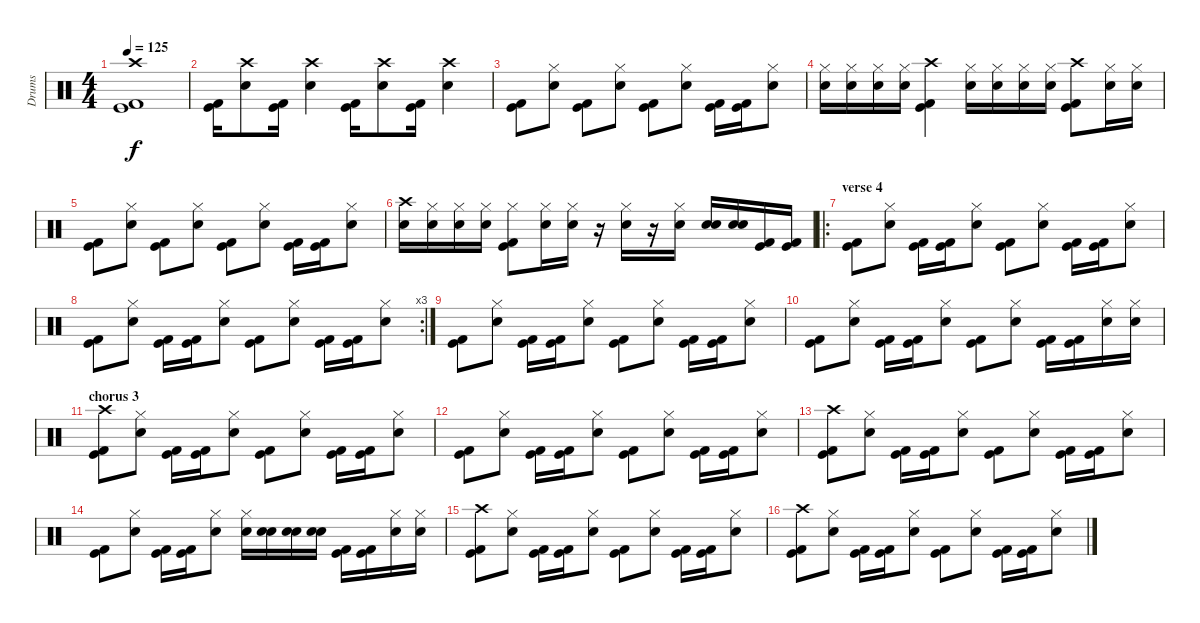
\track ("Drums" "Drums") {instrument percussion}
\staff {score}
\articulation defaults
\ts (4 4)
\tempo 125
\clef neutral
\ks c
("Crash high (hit)" "Kick (hit)" "Kick (hit) 2").1{dy f} |
("Kick (hit)" "Kick (hit) 2").16 ("Crash high (hit)" "Electric Snare (hit)").8 ("Kick (hit)" "Kick (hit) 2").16 ("Crash high (hit)" "Electric Snare (hit)").4 ("Kick (hit)" "Kick (hit) 2").16 ("Crash high (hit)" "Electric Snare (hit)").8 ("Kick (hit)" "Kick (hit) 2").16 ("Crash high (hit)" "Electric Snare (hit)").4 |
("Kick (hit)" "Kick (hit) 2").8 ("Hi-Hat (closed)" "Electric Snare (hit)").8 ("Kick (hit)" "Kick (hit) 2").8 ("Hi-Hat (closed)" "Electric Snare (hit)").8 ("Kick (hit)" "Kick (hit) 2").8 ("Hi-Hat (closed)" "Electric Snare (hit)").8 ("Kick (hit)" "Kick (hit) 2").16 ("Kick (hit)" "Kick (hit) 2").16 ("Hi-Hat (closed)" "Electric Snare (hit)").8 |
("Hi-Hat (closed)" "Electric Snare (hit)").16 ("Hi-Hat (closed)" "Electric Snare (hit)").16 ("Hi-Hat (closed)" "Electric Snare (hit)").16 ("Hi-Hat (closed)" "Electric Snare (hit)").16 ("Crash high (hit)" "Kick (hit)" "Kick (hit) 2").4 ("Hi-Hat (closed)" "Electric Snare (hit)").16 ("Hi-Hat (closed)" "Electric Snare (hit)").16 ("Hi-Hat (closed)" "Electric Snare (hit)").16 ("Hi-Hat (closed)" "Electric Snare (hit)").16 ("Crash high (hit)" "Kick (hit)" "Kick (hit) 2").8 ("Hi-Hat (closed)" "Electric Snare (hit)").16 ("Hi-Hat (closed)" "Electric Snare (hit)").16 |
("Kick (hit)" "Kick (hit) 2").8 ("Hi-Hat (closed)" "Electric Snare (hit)").8 ("Kick (hit)" "Kick (hit) 2").8 ("Hi-Hat (closed)" "Electric Snare (hit)").8 ("Kick (hit)" "Kick (hit) 2").8 ("Hi-Hat (closed)" "Electric Snare (hit)").8 ("Kick (hit)" "Kick (hit) 2").16 ("Kick (hit)" "Kick (hit) 2").16 ("Hi-Hat (closed)" "Electric Snare (hit)").8 |
("Crash high (hit)" "Electric Snare (hit)").16 ("Hi-Hat (closed)" "Electric Snare (hit)").16 ("Hi-Hat (closed)" "Electric Snare (hit)").16 ("Hi-Hat (closed)" "Electric Snare (hit)").16 ("Hi-Hat (closed)" "Kick (hit)" "Kick (hit) 2").8 ("Hi-Hat (closed)" "Electric Snare (hit)").16 ("Hi-Hat (closed)" "Electric Snare (hit)").16 r.16 ("Hi-Hat (closed)" "Electric Snare (hit)").16 r.16 ("Hi-Hat (closed)" "Electric Snare (hit)").16 ("Electric Snare (hit)" "Snare (hit) 2").16 ("Electric Snare (hit)" "Snare (hit) 2").16 ("Kick (hit)" "Kick (hit) 2").16 ("Kick (hit)" "Kick (hit) 2").16 |
\ro
\section ("" "verse 4")
("Kick (hit)" "Kick (hit) 2").8 ("Hi-Hat (closed)" "Electric Snare (hit)").8 ("Kick (hit)" "Kick (hit) 2").16 ("Kick (hit)" "Kick (hit) 2").16 ("Hi-Hat (closed)" "Electric Snare (hit)").8 ("Kick (hit)" "Kick (hit) 2").8 ("Hi-Hat (closed)" "Electric Snare (hit)").8 ("Kick (hit)" "Kick (hit) 2").16 ("Kick (hit)" "Kick (hit) 2").16 ("Hi-Hat (closed)" "Electric Snare (hit)").8 |
\rc 3
("Kick (hit)" "Kick (hit) 2").8 ("Hi-Hat (closed)" "Electric Snare (hit)").8 ("Kick (hit)" "Kick (hit) 2").16 ("Kick (hit)" "Kick (hit) 2").16 ("Hi-Hat (closed)" "Electric Snare (hit)").8 ("Kick (hit)" "Kick (hit) 2").8 ("Hi-Hat (closed)" "Electric Snare (hit)").8 ("Kick (hit)" "Kick (hit) 2").16 ("Kick (hit)" "Kick (hit) 2").16 ("Hi-Hat (closed)" "Electric Snare (hit)").8 |
("Kick (hit)" "Kick (hit) 2").8 ("Hi-Hat (closed)" "Electric Snare (hit)").8 ("Kick (hit)" "Kick (hit) 2").16 ("Kick (hit)" "Kick (hit) 2").16 ("Hi-Hat (closed)" "Electric Snare (hit)").8 ("Kick (hit)" "Kick (hit) 2").8 ("Hi-Hat (closed)" "Electric Snare (hit)").8 ("Kick (hit)" "Kick (hit) 2").16 ("Kick (hit)" "Kick (hit) 2").16 ("Hi-Hat (closed)" "Electric Snare (hit)").8 |
("Kick (hit)" "Kick (hit) 2").8 ("Hi-Hat (closed)" "Electric Snare (hit)").8 ("Kick (hit)" "Kick (hit) 2").16 ("Kick (hit)" "Kick (hit) 2").16 ("Hi-Hat (closed)" "Electric Snare (hit)").8 ("Kick (hit)" "Kick (hit) 2").8 ("Hi-Hat (closed)" "Electric Snare (hit)").8 ("Kick (hit)" "Kick (hit) 2").16 ("Kick (hit)" "Kick (hit) 2").16 ("Hi-Hat (closed)" "Electric Snare (hit)").16 ("Hi-Hat (closed)" "Electric Snare (hit)").16 |
\section ("" "chorus 3")
("Crash high (hit)" "Kick (hit)" "Kick (hit) 2").8 ("Hi-Hat (closed)" "Electric Snare (hit)").8 ("Kick (hit)" "Kick (hit) 2").16 ("Kick (hit)" "Kick (hit) 2").16 ("Hi-Hat (closed)" "Electric Snare (hit)").8 ("Kick (hit)" "Kick (hit) 2").8 ("Hi-Hat (closed)" "Electric Snare (hit)").8 ("Kick (hit)" "Kick (hit) 2").16 ("Kick (hit)" "Kick (hit) 2").16 ("Hi-Hat (closed)" "Electric Snare (hit)").8 |
("Kick (hit)" "Kick (hit) 2").8 ("Hi-Hat (closed)" "Electric Snare (hit)").8 ("Kick (hit)" "Kick (hit) 2").16 ("Kick (hit)" "Kick (hit) 2").16 ("Hi-Hat (closed)" "Electric Snare (hit)").8 ("Kick (hit)" "Kick (hit) 2").8 ("Hi-Hat (closed)" "Electric Snare (hit)").8 ("Kick (hit)" "Kick (hit) 2").16 ("Kick (hit)" "Kick (hit) 2").16 ("Hi-Hat (closed)" "Electric Snare (hit)").8 |
("Crash high (hit)" "Kick (hit)" "Kick (hit) 2").8 ("Hi-Hat (closed)" "Electric Snare (hit)").8 ("Kick (hit)" "Kick (hit) 2").16 ("Kick (hit)" "Kick (hit) 2").16 ("Hi-Hat (closed)" "Electric Snare (hit)").8 ("Kick (hit)" "Kick (hit) 2").8 ("Hi-Hat (closed)" "Electric Snare (hit)").8 ("Kick (hit)" "Kick (hit) 2").16 ("Kick (hit)" "Kick (hit) 2").16 ("Hi-Hat (closed)" "Electric Snare (hit)").8 |
("Kick (hit)" "Kick (hit) 2").8 ("Hi-Hat (closed)" "Electric Snare (hit)").8 ("Kick (hit)" "Kick (hit) 2").16 ("Kick (hit)" "Kick (hit) 2").16 ("Hi-Hat (closed)" "Electric Snare (hit)").8 ("Hi-Hat (closed)" "Electric Snare (hit)").16 ("Electric Snare (hit)" "Snare (hit) 2").16 ("Electric Snare (hit)" "Snare (hit) 2").16 ("Electric Snare (hit)" "Snare (hit) 2").16 ("Kick (hit)" "Kick (hit) 2").16 ("Kick (hit)" "Kick (hit) 2").16 ("Hi-Hat (closed)" "Electric Snare (hit)").16 ("Hi-Hat (closed)" "Electric Snare (hit)").16 |
("Crash high (hit)" "Kick (hit)" "Kick (hit) 2").8 ("Hi-Hat (closed)" "Electric Snare (hit)").8 ("Kick (hit)" "Kick (hit) 2").16 ("Kick (hit)" "Kick (hit) 2").16 ("Hi-Hat (closed)" "Electric Snare (hit)").8 ("Kick (hit)" "Kick (hit) 2").8 ("Hi-Hat (closed)" "Electric Snare (hit)").8 ("Kick (hit)" "Kick (hit) 2").16 ("Kick (hit)" "Kick (hit) 2").16 ("Hi-Hat (closed)" "Electric Snare (hit)").8 |
("Crash high (hit)" "Kick (hit)" "Kick (hit) 2").8 ("Hi-Hat (closed)" "Electric Snare (hit)").8 ("Kick (hit)" "Kick (hit) 2").16 ("Kick (hit)" "Kick (hit) 2").16 ("Hi-Hat (closed)" "Electric Snare (hit)").8 ("Kick (hit)" "Kick (hit) 2").8 ("Hi-Hat (closed)" "Electric Snare (hit)").8 ("Kick (hit)" "Kick (hit) 2").16 ("Kick (hit)" "Kick (hit) 2").16 ("Hi-Hat (closed)" "Electric Snare (hit)").8
